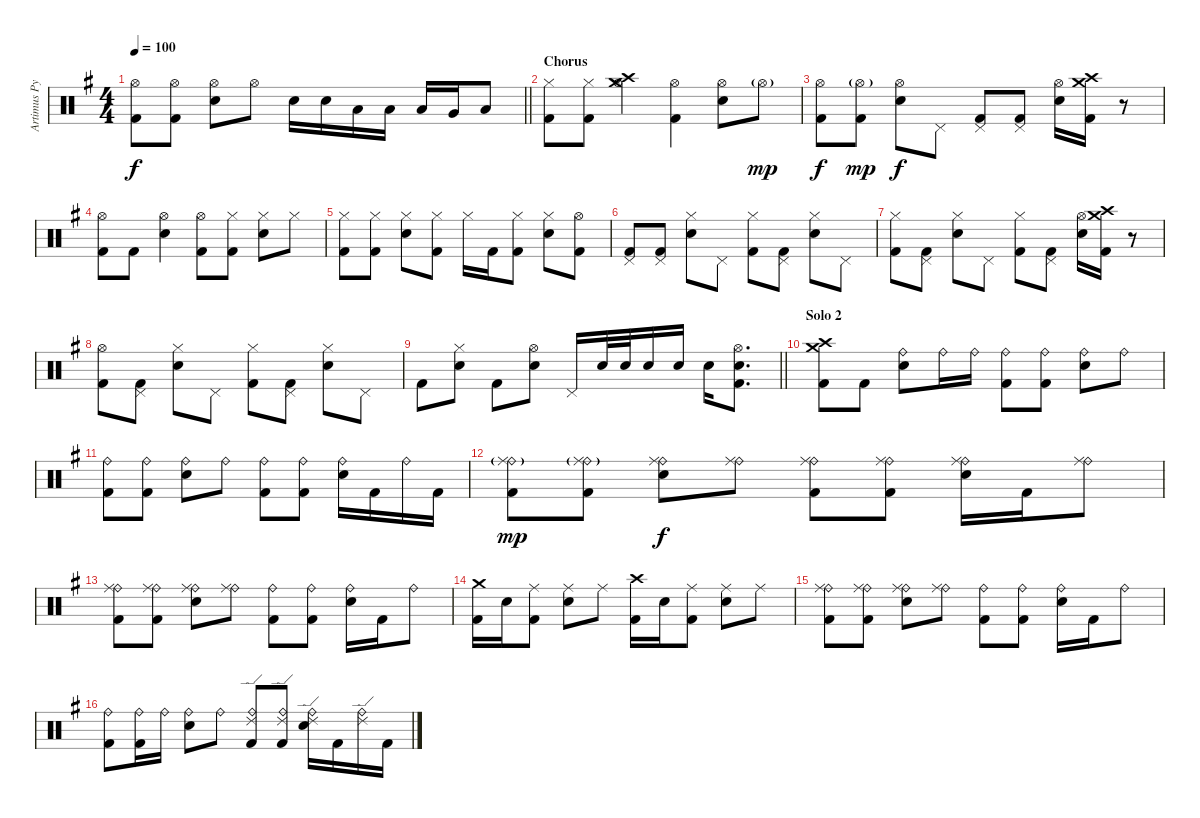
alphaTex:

\track ("Artimus Pyle" "Artimus Py") {instrument percussion}
\staff {score}
\articulation defaults
\ts (4 4)
\tempo 100
\clef neutral
\barLineRight lightlight
\ks g
("Hi-Hat (open)" "Kick (hit) 2").8{dy f} ("Hi-Hat (open)" "Kick (hit) 2").8 ("Snare (hit) 2" "Hi-Hat (open)").8 "Hi-Hat (open)".8 "Snare (hit) 2".16 "Snare (hit) 2".16 "Low Tom (hit)".16 "Low Tom (hit)".16 "Low Tom (hit)".16 "Very Low Tom (hit)".16 "Low Floor Tom (hit)".8 |
\section ("" "Chorus")
("Hi-Hat (closed)" "Kick (hit) 2").8 ("Hi-Hat (closed)" "Kick (hit) 2").8 ("Crash medium (hit)" "Crash high (hit)" "Hi-Hat (open)").4 ("Hi-Hat (open)" "Kick (hit) 2").4 ("Snare (hit) 2" "Hi-Hat (open)").8 "Hi-Hat (open)"{g}.8{dy mp} |
("Hi-Hat (open)" "Kick (hit) 2").8{dy f} ("Hi-Hat (open)"{g} "Kick (hit) 2").8{dy mp} ("Snare (hit) 2" "Hi-Hat (open)").8{dy f} "Pedal Hi-Hat (hit)".8 ("Pedal Hi-Hat (hit)" "Kick (hit) 2").8 ("Pedal Hi-Hat (hit)" "Kick (hit) 2").8 ("Snare (hit) 2" "Hi-Hat (open)").16 ("Crash medium (hit)" "Crash high (hit)" "Kick (hit) 2").16 r.8 |
("Hi-Hat (open)" "Kick (hit) 2").8 "Kick (hit) 2".8 ("Snare (hit) 2" "Hi-Hat (open)").4 ("Hi-Hat (open)" "Kick (hit) 2").8 ("Hi-Hat (closed)" "Kick (hit) 2").8 ("Snare (hit) 2" "Hi-Hat (closed)").8 "Hi-Hat (closed)".8 |
("Hi-Hat (closed)" "Kick (hit) 2").8 ("Hi-Hat (closed)" "Kick (hit) 2").8 ("Snare (hit) 2" "Hi-Hat (closed)").8 ("Hi-Hat (closed)" "Kick (hit) 2").8 "Hi-Hat (closed)".16 "Kick (hit) 2".16 ("Hi-Hat (closed)" "Kick (hit) 2").8 ("Snare (hit) 2" "Hi-Hat (closed)").8 ("Hi-Hat (open)" "Kick (hit) 2").8 |
("Pedal Hi-Hat (hit)" "Kick (hit) 2").8 ("Pedal Hi-Hat (hit)" "Kick (hit) 2").8 ("Snare (hit) 2" "Hi-Hat (closed)").8 "Pedal Hi-Hat (hit)".8 ("Hi-Hat (closed)" "Kick (hit) 2").8 ("Pedal Hi-Hat (hit)" "Kick (hit) 2").8 ("Snare (hit) 2" "Hi-Hat (closed)").8 "Pedal Hi-Hat (hit)".8 |
("Hi-Hat (closed)" "Kick (hit) 2").8 ("Pedal Hi-Hat (hit)" "Kick (hit) 2").8 ("Snare (hit) 2" "Hi-Hat (closed)").8 "Pedal Hi-Hat (hit)".8 ("Hi-Hat (closed)" "Kick (hit) 2").8 ("Pedal Hi-Hat (hit)" "Kick (hit) 2").8 ("Snare (hit) 2" "Hi-Hat (open)").16 ("Crash medium (hit)" "Crash high (hit)" "Kick (hit) 2").16 r.8 |
("Hi-Hat (open)" "Kick (hit) 2").8 ("Pedal Hi-Hat (hit)" "Kick (hit) 2").8 ("Snare (hit) 2" "Hi-Hat (closed)").8 "Pedal Hi-Hat (hit)".8 ("Hi-Hat (closed)" "Kick (hit) 2").8 ("Pedal Hi-Hat (hit)" "Kick (hit) 2").8 ("Snare (hit) 2" "Hi-Hat (closed)").8 "Pedal Hi-Hat (hit)".8 |
\barLineRight lightlight "Kick (hit) 2".8
("Snare (hit) 2" "Hi-Hat (closed)").8 "Kick (hit) 2".8 ("Snare (hit) 2" "Hi-Hat (open)").8 "Pedal Hi-Hat (hit)".16 "Snare (hit) 2".32 "Snare (hit) 2".32 "Snare (hit) 2".16 "Snare (hit) 2".16 "Snare (hit) 2".16 ("Snare (hit) 2" "Hi-Hat (open)" "Kick (hit) 2").8{d} |
\section ("" "Solo 2")
("Crash medium (hit)" "Crash high (hit)" "Kick (hit) 2").8 "Kick (hit) 2".8 ("Ride (bell)" "Snare (hit) 2").8 "Ride (bell)".16 "Ride (bell)".16 ("Ride (bell)" "Kick (hit) 2").8 ("Ride (bell)" "Kick (hit) 2").8 ("Ride (bell)" "Snare (hit) 2").8 "Ride (bell)".8 |
("Ride (bell)" "Kick (hit) 2").8 ("Ride (bell)" "Kick (hit) 2").8 ("Ride (bell)" "Snare (hit) 2").8 "Ride (bell)".8 ("Ride (bell)" "Kick (hit) 2").8 ("Ride (bell)" "Kick (hit) 2").8 ("Ride (bell)" "Snare (hit) 2").16 "Kick (hit) 2".16 "Ride (bell)".16 "Kick (hit) 2".16 |
("Ride (bell)" "Ride (middle)"{g} "Kick (hit) 2").8{dy mp} ("Ride (bell)" "Ride (middle)"{g} "Kick (hit) 2").8 ("Ride (bell)" "Ride (middle)" "Snare (hit) 2").8{dy f} ("Ride (bell)" "Ride (middle)").8 ("Ride (bell)" "Ride (middle)" "Kick (hit) 2").8 ("Ride (bell)" "Ride (middle)" "Kick (hit) 2").8 ("Ride (bell)" "Ride (middle)" "Snare (hit) 2").16 "Kick (hit) 2".16 ("Ride (bell)" "Ride (middle)").8 |
("Ride (bell)" "Ride (middle)" "Kick (hit) 2").8 ("Ride (bell)" "Ride (middle)" "Kick (hit) 2").8 ("Ride (bell)" "Ride (middle)" "Snare (hit) 2").8 ("Ride (bell)" "Ride (middle)").8 ("Ride (bell)" "Kick (hit) 2").8 ("Ride (bell)" "Kick (hit) 2").8 ("Ride (bell)" "Snare (hit) 2").16 "Kick (hit) 2".16 "Ride (bell)".8 |
("Crash medium (hit)" "Kick (hit) 2").16 "Snare (hit) 2".16 ("Ride (middle)" "Kick (hit) 2").8 ("Ride (middle)" "Snare (hit) 2").8 "Ride (middle)".8 ("Crash high (hit)" "Kick (hit) 2").16 "Snare (hit) 2".16 ("Ride (middle)" "Kick (hit) 2").8 ("Ride (middle)" "Snare (hit) 2").8 "Ride (middle)".8 |
("Ride (bell)" "Ride (middle)" "Kick (hit) 2").8 ("Ride (bell)" "Ride (middle)" "Kick (hit) 2").8 ("Ride (bell)" "Ride (middle)" "Snare (hit) 2").8 ("Ride (bell)" "Ride (middle)").8 ("Ride (bell)" "Kick (hit) 2").8 ("Ride (bell)" "Kick (hit) 2").8 ("Ride (bell)" "Snare (hit) 2").16 "Kick (hit) 2".16 "Ride (bell)".8 |
("Ride (bell)" "Kick (hit) 2").8 ("Ride (bell)" "Kick (hit) 2").16 "Ride (bell)".16 ("Ride (bell)" "Snare (hit) 2").8 "Ride (bell)".8 ("Ride (bell)" "Ride (edge) 2" "Kick (hit) 2").8 ("Ride (bell)" "Ride (edge) 2" "Kick (hit) 2").8 ("Ride (bell)" "Ride (edge) 2" "Snare (hit) 2").16 "Kick (hit) 2".16 ("Ride (bell)" "Ride (edge) 2").16 "Kick (hit) 2".16
